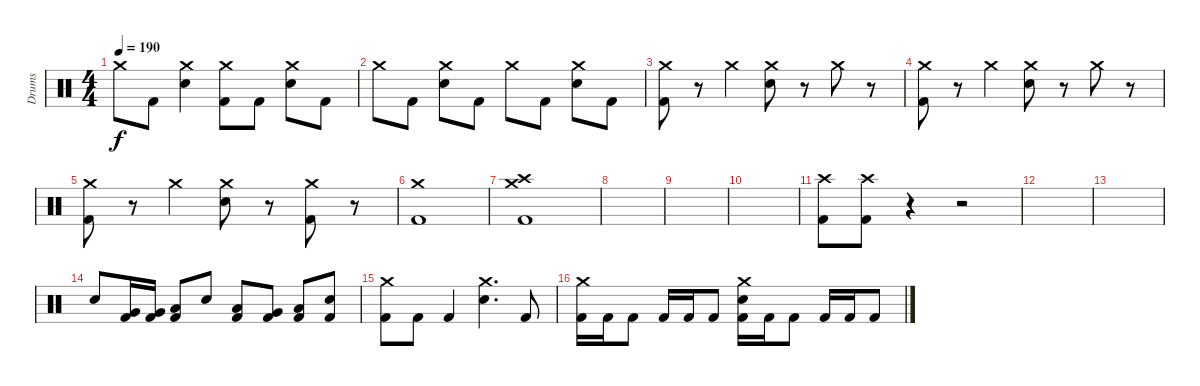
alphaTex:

\track ("Drums" "Drums") {instrument percussion}
\staff {score}
\articulation defaults
\ts (4 4)
\tempo 190
\clef neutral
\ks c "Crash medium (hit)".8{dy f} "Kick (hit) 2".8
("Crash medium (hit)" "Snare (hit) 2").4 ("Crash medium (hit)" "Kick (hit) 2").8 "Kick (hit) 2".8 ("Crash medium (hit)" "Snare (hit) 2").8 "Kick (hit) 2".8 |
"Crash medium (hit)".8 "Kick (hit) 2".8 ("Crash medium (hit)" "Snare (hit) 2").8 "Kick (hit) 2".8 "Crash medium (hit)".8 "Kick (hit) 2".8 ("Crash medium (hit)" "Snare (hit) 2").8 "Kick (hit) 2".8 |
("Crash medium (hit)" "Kick (hit) 2").8 r.8 "Crash medium (hit)".4 ("Crash medium (hit)" "Snare (hit) 2").8 r.8 "Crash medium (hit)".8 r.8 |
("Crash medium (hit)" "Kick (hit) 2").8 r.8 "Crash medium (hit)".4 ("Crash medium (hit)" "Snare (hit) 2").8 r.8 "Crash medium (hit)".8 r.8 |
("Crash medium (hit)" "Kick (hit) 2").8 r.8 "Crash medium (hit)".4 ("Crash medium (hit)" "Snare (hit) 2").8 r.8 ("Crash medium (hit)" "Kick (hit) 2").8 r.8 |
("Crash medium (hit)" "Kick (hit) 2").1 |
("Crash high (hit)" "Crash medium (hit)" "Kick (hit) 2").1 |
|
|
|
("Crash high (hit)" "Kick (hit) 2").8 ("Crash high (hit)" "Kick (hit) 2").8 r.4 r.2 |
|
|
"Snare (hit) 2".8 ("Very Low Tom (hit)" "Kick (hit) 2").16 ("Very Low Tom (hit)" "Kick (hit) 2").16 ("Low Floor Tom (hit)" "Kick (hit) 2").8 "Snare (hit) 2".8 ("Low Tom (hit)" "Kick (hit) 2").8 ("Very Low Tom (hit)" "Kick (hit) 2").8 ("Low Floor Tom (hit)" "Kick (hit) 2").8 ("Snare (hit) 2" "Kick (hit) 2").8 |
("Crash medium (hit)" "Kick (hit) 2").8 "Kick (hit) 2".8 "Kick (hit) 2".4 ("Crash medium (hit)" "Snare (hit) 2").4{d} "Kick (hit) 2".8 |
("Crash medium (hit)" "Kick (hit) 2").16 "Kick (hit) 2".16 "Kick (hit) 2".8 "Kick (hit) 2".16 "Kick (hit) 2".16 "Kick (hit) 2".8 ("Crash medium (hit)" "Snare (hit) 2" "Kick (hit) 2").16 "Kick (hit) 2".16 "Kick (hit) 2".8 "Kick (hit) 2".16 "Kick (hit) 2".16 "Kick (hit) 2".8
